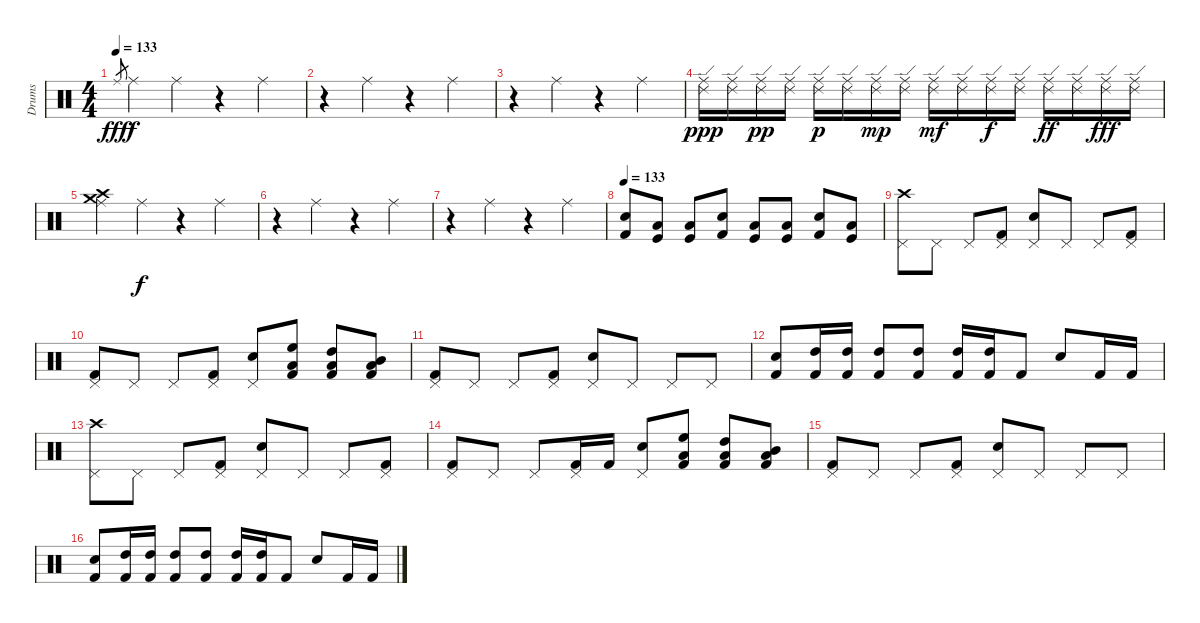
\track ("Drums" "Drums") {instrument percussion}
\staff {score}
\articulation defaults
\ts (4 4)
\tempo 133
\tempo 124
\tempo 133
\clef neutral
\ks c "Ride (middle)".8{gr dy fff} "Ride (middle)".4{dy f} "Ride (middle)".4
r.4 "Ride (middle)".4 |
r.4 "Ride (middle)".4 r.4 "Ride (middle)".4 |
r.4 "Ride (middle)".4 r.4 "Ride (middle)".4 |
("Ride (edge) 2" "Ride (middle)").16{dy ppp} ("Ride (edge) 2" "Ride (middle)").16 ("Ride (edge) 2" "Ride (middle)").16{dy pp} ("Ride (edge) 2" "Ride (middle)").16 ("Ride (edge) 2" "Ride (middle)").16{dy p} ("Ride (edge) 2" "Ride (middle)").16 ("Ride (edge) 2" "Ride (middle)").16{dy mp} ("Ride (edge) 2" "Ride (middle)").16 ("Ride (edge) 2" "Ride (middle)").16{dy mf} ("Ride (edge) 2" "Ride (middle)").16 ("Ride (edge) 2" "Ride (middle)").16{dy f} ("Ride (edge) 2" "Ride (middle)").16 ("Ride (edge) 2" "Ride (middle)").16{dy ff} ("Ride (edge) 2" "Ride (middle)").16 ("Ride (edge) 2" "Ride (middle)").16{dy fff} ("Ride (edge) 2" "Ride (middle)").16 |
("Ride (middle)" "Crash medium (hit)" "Crash high (hit)").4 "Ride (middle)".4{dy f} r.4 "Ride (middle)".4 |
r.4 "Ride (middle)".4 r.4 "Ride (middle)".4 |
r.4 "Ride (middle)".4 r.4 "Ride (middle)".4 |
\tempo 133
("Snare (hit) 2" "Kick (hit) 2").8 ("Low Tom (hit)" "Kick (hit)").8 ("Low Tom (hit)" "Kick (hit)").8 ("Snare (hit) 2" "Kick (hit) 2").8 ("Low Tom (hit)" "Kick (hit)").8 ("Low Tom (hit)" "Kick (hit)").8 ("Snare (hit) 2" "Kick (hit) 2").8 ("Low Tom (hit)" "Kick (hit)").8 |
("Crash high (hit)" "Pedal Hi-Hat (hit)").8 "Pedal Hi-Hat (hit)".8 "Pedal Hi-Hat (hit)".8 ("Kick (hit) 2" "Pedal Hi-Hat (hit)").8 ("Electric Snare (hit)" "Pedal Hi-Hat (hit)").8 "Pedal Hi-Hat (hit)".8 "Pedal Hi-Hat (hit)".8 ("Kick (hit) 2" "Pedal Hi-Hat (hit)").8 |
("Kick (hit) 2" "Pedal Hi-Hat (hit)").8 "Pedal Hi-Hat (hit)".8 "Pedal Hi-Hat (hit)".8 ("Kick (hit) 2" "Pedal Hi-Hat (hit)").8 ("Electric Snare (hit)" "Pedal Hi-Hat (hit)").8 ("High Floor Tom (hit)" "Low Tom (hit)" "Kick (hit) 2").8 ("High Tom (hit)" "Low Tom (hit)" "Kick (hit) 2").8 ("Mid Tom (hit)" "Low Tom (hit)" "Kick (hit) 2").8 |
("Kick (hit) 2" "Pedal Hi-Hat (hit)").8 "Pedal Hi-Hat (hit)".8 "Pedal Hi-Hat (hit)".8 ("Kick (hit) 2" "Pedal Hi-Hat (hit)").8 ("Electric Snare (hit)" "Pedal Hi-Hat (hit)").8 "Pedal Hi-Hat (hit)".8 "Pedal Hi-Hat (hit)".8 "Pedal Hi-Hat (hit)".8 |
("Electric Snare (hit)" "Kick (hit) 2").8 ("High Tom (hit)" "Kick (hit) 2").16 ("High Tom (hit)" "Kick (hit) 2").16 ("High Tom (hit)" "Kick (hit) 2").8 ("High Tom (hit)" "Kick (hit) 2").8 ("High Tom (hit)" "Kick (hit) 2").16 ("High Tom (hit)" "Kick (hit) 2").16 "Kick (hit) 2".8 "Electric Snare (hit)".8 "Kick (hit) 2".16 "Kick (hit) 2".16 |
("Crash high (hit)" "Pedal Hi-Hat (hit)").8 "Pedal Hi-Hat (hit)".8 "Pedal Hi-Hat (hit)".8 ("Kick (hit) 2" "Pedal Hi-Hat (hit)").8 ("Electric Snare (hit)" "Pedal Hi-Hat (hit)").8 "Pedal Hi-Hat (hit)".8 "Pedal Hi-Hat (hit)".8 ("Kick (hit) 2" "Pedal Hi-Hat (hit)").8 |
("Kick (hit) 2" "Pedal Hi-Hat (hit)").8 "Pedal Hi-Hat (hit)".8 "Pedal Hi-Hat (hit)".8 ("Kick (hit) 2" "Pedal Hi-Hat (hit)").16 "Kick (hit) 2".16 ("Electric Snare (hit)" "Pedal Hi-Hat (hit)").8 ("High Floor Tom (hit)" "Low Tom (hit)" "Kick (hit) 2").8 ("High Tom (hit)" "Low Tom (hit)" "Kick (hit) 2").8 ("Mid Tom (hit)" "Low Tom (hit)" "Kick (hit) 2").8 |
("Kick (hit) 2" "Pedal Hi-Hat (hit)").8 "Pedal Hi-Hat (hit)".8 "Pedal Hi-Hat (hit)".8 ("Kick (hit) 2" "Pedal Hi-Hat (hit)").8 ("Electric Snare (hit)" "Pedal Hi-Hat (hit)").8 "Pedal Hi-Hat (hit)".8 "Pedal Hi-Hat (hit)".8 "Pedal Hi-Hat (hit)".8 |
("Electric Snare (hit)" "Kick (hit) 2").8 ("High Tom (hit)" "Kick (hit) 2").16 ("High Tom (hit)" "Kick (hit) 2").16 ("High Tom (hit)" "Kick (hit) 2").8 ("High Tom (hit)" "Kick (hit) 2").8 ("High Tom (hit)" "Kick (hit) 2").16 ("High Tom (hit)" "Kick (hit) 2").16 "Kick (hit) 2".8 "Electric Snare (hit)".8 "Kick (hit) 2".16 "Kick (hit) 2".16
